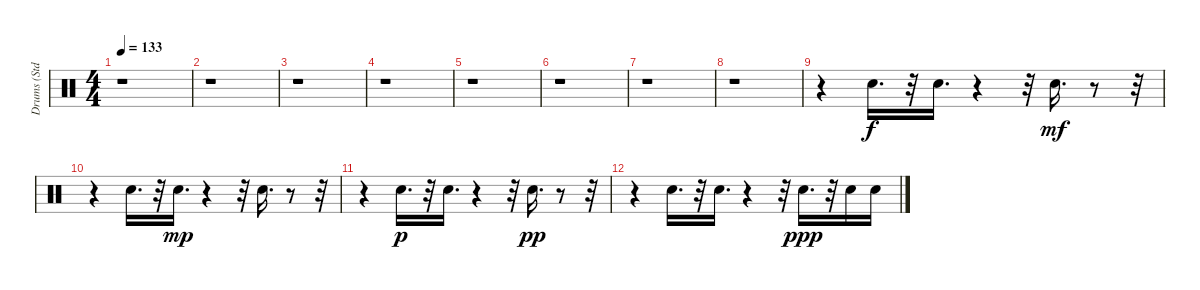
\track ("Drums (Std.)" "Drums (Std") {instrument percussion}
\staff {score}
\articulation defaults
\ts (4 4)
\tempo 133
\clef neutral
\ks c
r.1{dy mf} |
r.1 |
r.1 |
r.1 |
r.1 |
r.1 |
r.1 |
r.1 |
r.4 "Snare (hit) 2".16{d dy f} r.32 "Snare (hit) 2".16{d} r.4 r.32 "Snare (hit) 2".16{d dy mf} r.8 r.32 |
r.4 "Snare (hit) 2".16{d} r.32 "Snare (hit) 2".16{d dy mp} r.4 r.32 "Snare (hit) 2".16{d} r.8 r.32 |
r.4 "Snare (hit) 2".16{d dy p} r.32 "Snare (hit) 2".16{d} r.4 r.32 "Snare (hit) 2".16{d dy pp} r.8 r.32 |
r.4 "Snare (hit) 2".16{d} r.32 "Snare (hit) 2".16{d} r.4 r.32 "Snare (hit) 2".16{d dy ppp} r.32 "Snare (hit) 2".16 "Snare (hit) 2".16
